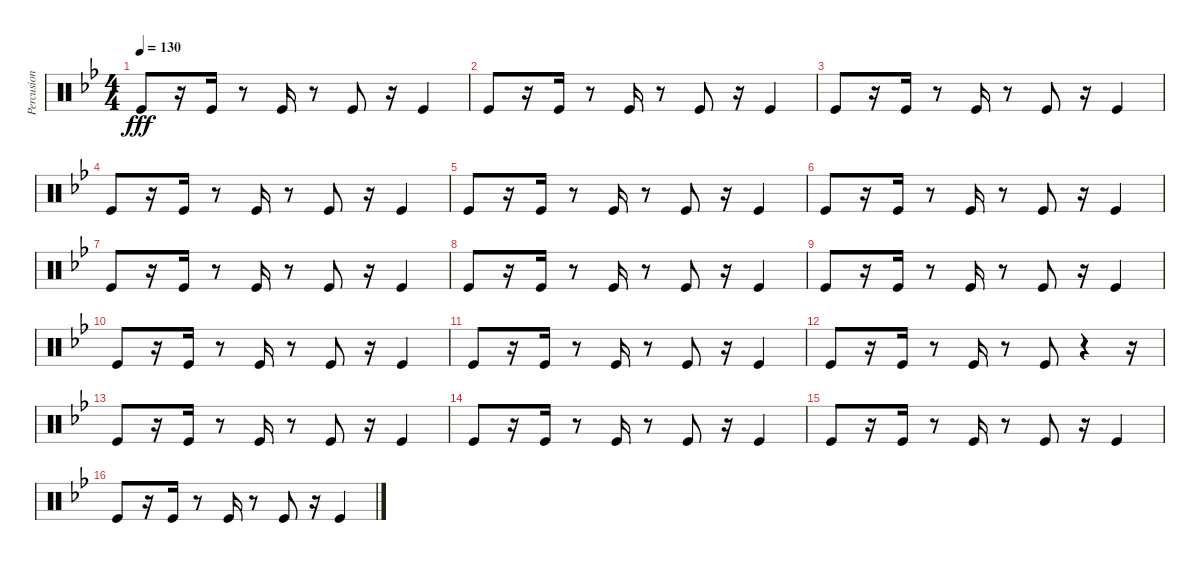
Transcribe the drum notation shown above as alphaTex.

\track ("Percusion II" "Percusion ") {instrument percussion}
\staff {score}
\articulation defaults
\ts (4 4)
\tempo 130
\clef neutral
\ks gminor "Kick (hit)".8{dy fff}
r.16 "Kick (hit)".16 r.8 "Kick (hit)".16 r.8 "Kick (hit)".8 r.16 "Kick (hit)".4 |
"Kick (hit)".8 r.16 "Kick (hit)".16 r.8 "Kick (hit)".16 r.8 "Kick (hit)".8 r.16 "Kick (hit)".4 |
"Kick (hit)".8 r.16 "Kick (hit)".16 r.8 "Kick (hit)".16 r.8 "Kick (hit)".8 r.16 "Kick (hit)".4 |
"Kick (hit)".8 r.16 "Kick (hit)".16 r.8 "Kick (hit)".16 r.8 "Kick (hit)".8 r.16 "Kick (hit)".4 |
"Kick (hit)".8 r.16 "Kick (hit)".16 r.8 "Kick (hit)".16 r.8 "Kick (hit)".8 r.16 "Kick (hit)".4 |
"Kick (hit)".8 r.16 "Kick (hit)".16 r.8 "Kick (hit)".16 r.8 "Kick (hit)".8 r.16 "Kick (hit)".4 |
"Kick (hit)".8 r.16 "Kick (hit)".16 r.8 "Kick (hit)".16 r.8 "Kick (hit)".8 r.16 "Kick (hit)".4 |
"Kick (hit)".8 r.16 "Kick (hit)".16 r.8 "Kick (hit)".16 r.8 "Kick (hit)".8 r.16 "Kick (hit)".4 |
"Kick (hit)".8 r.16 "Kick (hit)".16 r.8 "Kick (hit)".16 r.8 "Kick (hit)".8 r.16 "Kick (hit)".4 |
"Kick (hit)".8 r.16 "Kick (hit)".16 r.8 "Kick (hit)".16 r.8 "Kick (hit)".8 r.16 "Kick (hit)".4 |
"Kick (hit)".8 r.16 "Kick (hit)".16 r.8 "Kick (hit)".16 r.8 "Kick (hit)".8 r.16 "Kick (hit)".4 |
"Kick (hit)".8 r.16 "Kick (hit)".16 r.8 "Kick (hit)".16 r.8 "Kick (hit)".8 r.4 r.16 |
"Kick (hit)".8 r.16 "Kick (hit)".16 r.8 "Kick (hit)".16 r.8 "Kick (hit)".8 r.16 "Kick (hit)".4 |
"Kick (hit)".8 r.16 "Kick (hit)".16 r.8 "Kick (hit)".16 r.8 "Kick (hit)".8 r.16 "Kick (hit)".4 |
"Kick (hit)".8 r.16 "Kick (hit)".16 r.8 "Kick (hit)".16 r.8 "Kick (hit)".8 r.16 "Kick (hit)".4 |
"Kick (hit)".8 r.16 "Kick (hit)".16 r.8 "Kick (hit)".16 r.8 "Kick (hit)".8 r.16 "Kick (hit)".4
